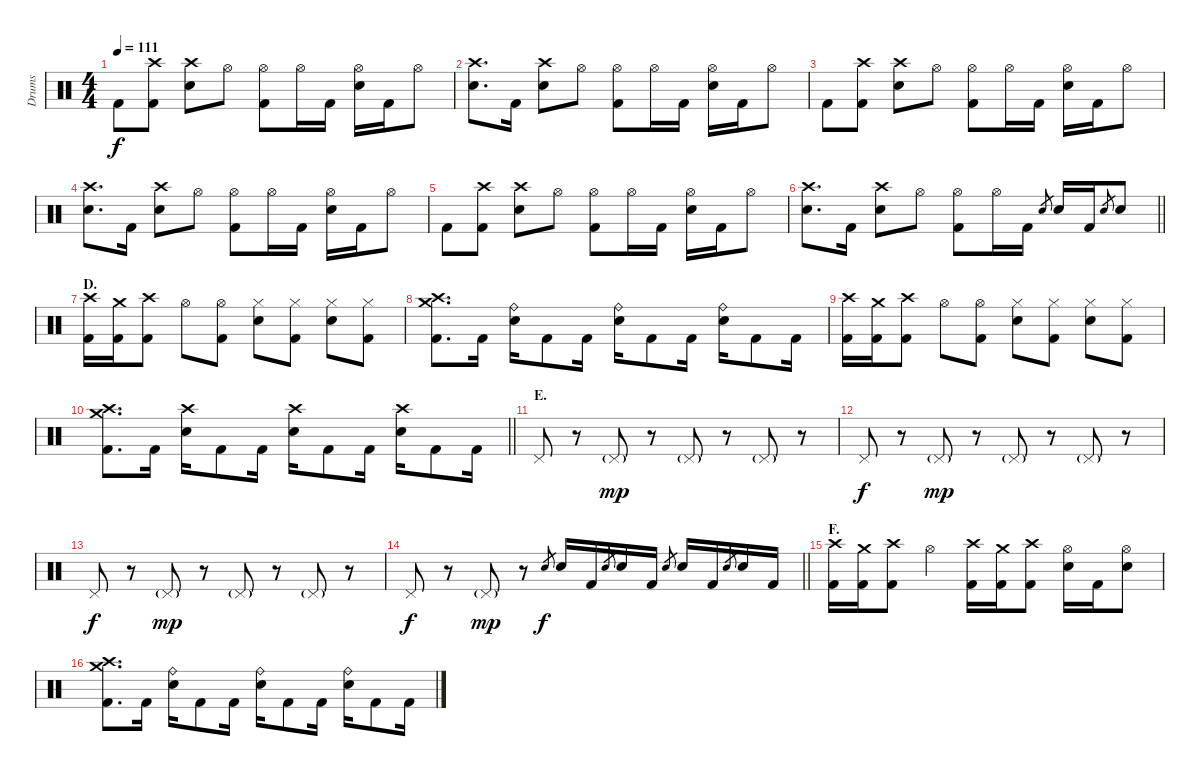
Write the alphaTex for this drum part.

\track ("Drums" "Drums") {instrument percussion}
\staff {score}
\articulation defaults
\ts (4 4)
\tempo 111
\clef neutral
\ks c "Kick (hit) 2".8{dy f}
("Crash high (hit)" "Kick (hit) 2").8 ("Crash high (hit)" "Electric Snare (hit)").8 "Hi-Hat (open)".8 ("Hi-Hat (open)" "Kick (hit) 2").8 "Hi-Hat (open)".16 "Kick (hit) 2".16 ("Hi-Hat (open)" "Electric Snare (hit)").16 "Kick (hit) 2".16 "Hi-Hat (open)".8 |
("Crash high (hit)" "Electric Snare (hit)").8{d} "Kick (hit) 2".16 ("Crash high (hit)" "Electric Snare (hit)").8 "Hi-Hat (open)".8 ("Hi-Hat (open)" "Kick (hit) 2").8 "Hi-Hat (open)".16 "Kick (hit) 2".16 ("Hi-Hat (open)" "Electric Snare (hit)").16 "Kick (hit) 2".16 "Hi-Hat (open)".8 |
"Kick (hit) 2".8 ("Crash high (hit)" "Kick (hit) 2").8 ("Crash high (hit)" "Electric Snare (hit)").8 "Hi-Hat (open)".8 ("Hi-Hat (open)" "Kick (hit) 2").8 "Hi-Hat (open)".16 "Kick (hit) 2".16 ("Hi-Hat (open)" "Electric Snare (hit)").16 "Kick (hit) 2".16 "Hi-Hat (open)".8 |
("Crash high (hit)" "Electric Snare (hit)").8{d} "Kick (hit) 2".16 ("Crash high (hit)" "Electric Snare (hit)").8 "Hi-Hat (open)".8 ("Hi-Hat (open)" "Kick (hit) 2").8 "Hi-Hat (open)".16 "Kick (hit) 2".16 ("Hi-Hat (open)" "Electric Snare (hit)").16 "Kick (hit) 2".16 "Hi-Hat (open)".8 |
"Kick (hit) 2".8 ("Crash high (hit)" "Kick (hit) 2").8 ("Crash high (hit)" "Electric Snare (hit)").8 "Hi-Hat (open)".8 ("Hi-Hat (open)" "Kick (hit) 2").8 "Hi-Hat (open)".16 "Kick (hit) 2".16 ("Hi-Hat (open)" "Electric Snare (hit)").16 "Kick (hit) 2".16 "Hi-Hat (open)".8 |
\barLineRight lightlight
("Crash high (hit)" "Electric Snare (hit)").8{d} "Kick (hit) 2".16 ("Crash high (hit)" "Electric Snare (hit)").8 "Hi-Hat (open)".8 ("Hi-Hat (open)" "Kick (hit) 2").8 "Hi-Hat (open)".16 "Kick (hit) 2".16 "Electric Snare (hit)".8{gr} "Electric Snare (hit)".16 "Kick (hit) 2".16 "Electric Snare (hit)".8{gr} "Electric Snare (hit)".8 |
\section ("" "D.")
("Crash high (hit)" "Kick (hit) 2").16 ("Crash medium (hit)" "Kick (hit) 2").16 ("Crash high (hit)" "Kick (hit) 2").8 "Hi-Hat (open)".8 ("Hi-Hat (open)" "Kick (hit) 2").8 ("Hi-Hat (closed)" "Electric Snare (hit)").8 ("Hi-Hat (closed)" "Kick (hit) 2").8 ("Hi-Hat (closed)" "Electric Snare (hit)").8 ("Hi-Hat (closed)" "Kick (hit) 2").8 |
("Crash medium (hit)" "Crash high (hit)" "Kick (hit) 2").8{d} "Kick (hit) 2".16 ("Ride (bell)" "Electric Snare (hit)").16 "Kick (hit) 2".8 "Kick (hit) 2".16 ("Ride (bell)" "Electric Snare (hit)").16 "Kick (hit) 2".8 "Kick (hit) 2".16 ("Ride (bell)" "Electric Snare (hit)").16 "Kick (hit) 2".8 "Kick (hit) 2".16 |
("Crash high (hit)" "Kick (hit) 2").16 ("Crash medium (hit)" "Kick (hit) 2").16 ("Crash high (hit)" "Kick (hit) 2").8 "Hi-Hat (open)".8 ("Hi-Hat (open)" "Kick (hit) 2").8 ("Hi-Hat (closed)" "Electric Snare (hit)").8 ("Hi-Hat (closed)" "Kick (hit) 2").8 ("Hi-Hat (closed)" "Electric Snare (hit)").8 ("Hi-Hat (closed)" "Kick (hit) 2").8 |
\barLineRight lightlight
("Crash medium (hit)" "Crash high (hit)" "Kick (hit) 2").8{d} "Kick (hit) 2".16 ("Crash high (hit)" "Electric Snare (hit)").16 "Kick (hit) 2".8 "Kick (hit) 2".16 ("Crash high (hit)" "Electric Snare (hit)").16 "Kick (hit) 2".8 "Kick (hit) 2".16 ("Crash high (hit)" "Electric Snare (hit)").16 "Kick (hit) 2".8 "Kick (hit) 2".16 |
\section ("" "E.")
"Pedal Hi-Hat (hit)".8 r.8 "Pedal Hi-Hat (hit)"{g}.8{dy mp} r.8 "Pedal Hi-Hat (hit)"{g}.8 r.8 "Pedal Hi-Hat (hit)"{g}.8 r.8 |
"Pedal Hi-Hat (hit)".8{dy f} r.8 "Pedal Hi-Hat (hit)"{g}.8{dy mp} r.8 "Pedal Hi-Hat (hit)"{g}.8 r.8 "Pedal Hi-Hat (hit)"{g}.8 r.8 |
"Pedal Hi-Hat (hit)".8{dy f} r.8 "Pedal Hi-Hat (hit)"{g}.8{dy mp} r.8 "Pedal Hi-Hat (hit)"{g}.8 r.8 "Pedal Hi-Hat (hit)"{g}.8 r.8 |
\barLineRight lightlight "Pedal Hi-Hat (hit)".8{dy f}
r.8 "Pedal Hi-Hat (hit)"{g}.8{dy mp} r.8 "Electric Snare (hit)".8{gr dy f} "Electric Snare (hit)".16 "Kick (hit) 2".16 "Electric Snare (hit)".8{gr} "Electric Snare (hit)".16 "Kick (hit) 2".16 "Electric Snare (hit)".8{gr} "Electric Snare (hit)".16 "Kick (hit) 2".16 "Electric Snare (hit)".8{gr} "Electric Snare (hit)".16 "Kick (hit) 2".16 |
\section ("" "F.")
("Crash high (hit)" "Kick (hit) 2").16 ("Crash medium (hit)" "Kick (hit) 2").16 ("Crash high (hit)" "Kick (hit) 2").8 "Hi-Hat (open)".4 ("Crash high (hit)" "Kick (hit) 2").16 ("Crash medium (hit)" "Kick (hit) 2").16 ("Crash high (hit)" "Kick (hit) 2").8 ("Hi-Hat (open)" "Electric Snare (hit)").16 "Kick (hit) 2".16 ("Hi-Hat (open)" "Electric Snare (hit)").8 |
("Crash medium (hit)" "Crash high (hit)" "Kick (hit) 2").8{d} "Kick (hit) 2".16 ("Ride (bell)" "Electric Snare (hit)").16 "Kick (hit) 2".8 "Kick (hit) 2".16 ("Ride (bell)" "Electric Snare (hit)").16 "Kick (hit) 2".8 "Kick (hit) 2".16 ("Ride (bell)" "Electric Snare (hit)").16 "Kick (hit) 2".8 "Kick (hit) 2".16
